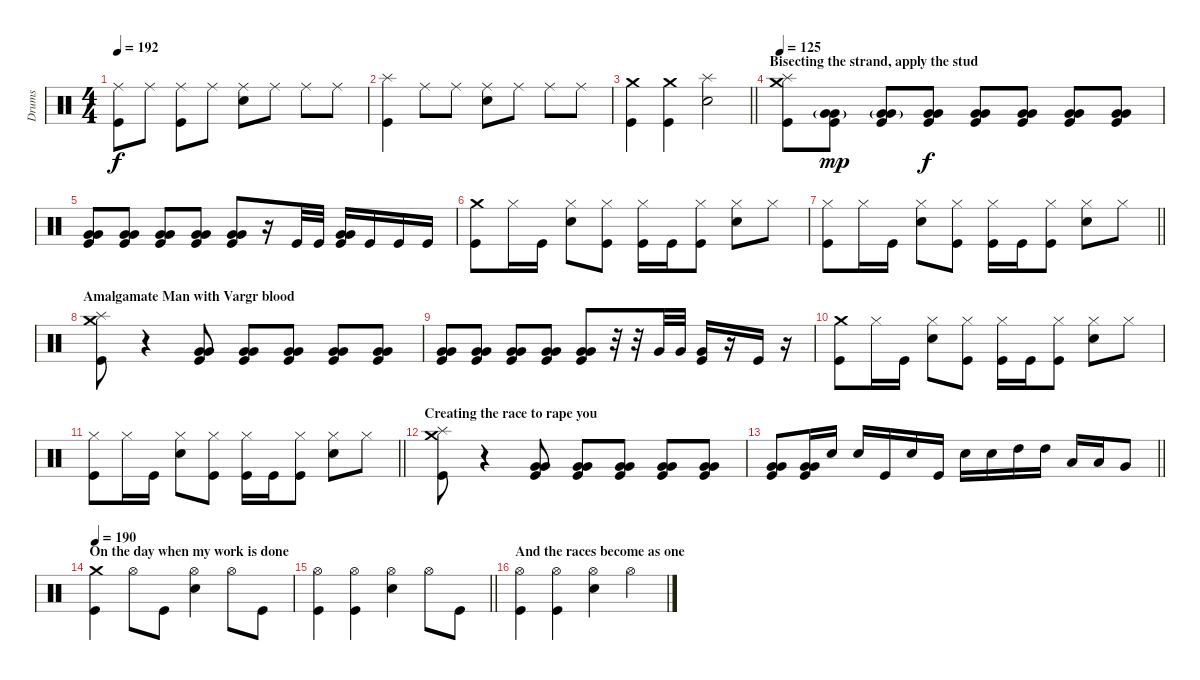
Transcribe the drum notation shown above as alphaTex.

\track ("Drums" "Drums") {instrument percussion}
\staff {score}
\articulation defaults
\ts (4 4)
\tempo 192
\clef neutral
\ks c
("Ride (middle)" "Kick (hit)").8{dy f} "Ride (middle)".8 ("Ride (middle)" "Kick (hit)").8 "Ride (middle)".8 ("Ride (middle)" "Snare (hit) 2").8 "Ride (middle)".8 "Ride (middle)".8 "Ride (middle)".8 |
("Splash (hit)" "Kick (hit)").4 "Ride (middle)".8 "Ride (middle)".8 ("Ride (middle)" "Snare (hit) 2").8 "Ride (middle)".8 "Ride (middle)".8 "Ride (middle)".8 |
\barLineRight lightlight
("Crash medium (hit)" "Kick (hit)").4 ("Crash medium (hit)" "Kick (hit)").4 ("Splash (hit)" "Snare (hit) 2").2 |
\section ("" "Bisecting the strand, apply the stud ")
\tempo 125
("Splash (hit)" "Crash medium (hit)" "Kick (hit)").8 ("Very Low Tom (hit)"{g} "Very Low Tom (hit)"{g} "Kick (hit)").8{dy mp} ("Very Low Tom (hit)"{g} "Very Low Tom (hit)"{g} "Kick (hit)").8 ("Very Low Tom (hit)" "Very Low Tom (hit)" "Kick (hit)").8{dy f} ("Very Low Tom (hit)" "Very Low Tom (hit)" "Kick (hit)").8 ("Very Low Tom (hit)" "Very Low Tom (hit)" "Kick (hit)").8 ("Very Low Tom (hit)" "Very Low Tom (hit)" "Kick (hit)").8 ("Very Low Tom (hit)" "Very Low Tom (hit)" "Kick (hit)").8 |
("Very Low Tom (hit)" "Very Low Tom (hit)" "Kick (hit)").8 ("Very Low Tom (hit)" "Very Low Tom (hit)" "Kick (hit)").8 ("Very Low Tom (hit)" "Very Low Tom (hit)" "Kick (hit)").8 ("Very Low Tom (hit)" "Very Low Tom (hit)" "Kick (hit)").8 ("Very Low Tom (hit)" "Very Low Tom (hit)" "Kick (hit)").8 r.16 "Kick (hit)".32 "Kick (hit)".32 ("Very Low Tom (hit)" "Very Low Tom (hit)" "Kick (hit)").16 "Kick (hit)".16 "Kick (hit)".16 "Kick (hit)".16 |
("Crash medium (hit)" "Kick (hit)").8 "Hi-Hat (closed)".16 "Kick (hit)".16 ("Hi-Hat (closed)" "Snare (hit) 2").8 ("Hi-Hat (closed)" "Kick (hit)").8 ("Hi-Hat (closed)" "Kick (hit)").16 "Kick (hit)".16 ("Hi-Hat (closed)" "Kick (hit)").8 ("Hi-Hat (closed)" "Snare (hit) 2").8 "Hi-Hat (closed)".8 |
\barLineRight lightlight
("Hi-Hat (closed)" "Kick (hit)").8 "Hi-Hat (closed)".16 "Kick (hit)".16 ("Hi-Hat (closed)" "Snare (hit) 2").8 ("Hi-Hat (closed)" "Kick (hit)").8 ("Hi-Hat (closed)" "Kick (hit)").16 "Kick (hit)".16 ("Hi-Hat (closed)" "Kick (hit)").8 ("Hi-Hat (closed)" "Snare (hit) 2").8 "Hi-Hat (closed)".8 |
\section ("" "Amalgamate Man with Vargr blood ")
("Splash (hit)" "Crash medium (hit)" "Kick (hit)").8 r.4 ("Very Low Tom (hit)" "Very Low Tom (hit)" "Kick (hit)").8 ("Very Low Tom (hit)" "Very Low Tom (hit)" "Kick (hit)").8 ("Very Low Tom (hit)" "Very Low Tom (hit)" "Kick (hit)").8 ("Very Low Tom (hit)" "Very Low Tom (hit)" "Kick (hit)").8 ("Very Low Tom (hit)" "Very Low Tom (hit)" "Kick (hit)").8 |
("Very Low Tom (hit)" "Very Low Tom (hit)" "Kick (hit)").8 ("Very Low Tom (hit)" "Very Low Tom (hit)" "Kick (hit)").8 ("Very Low Tom (hit)" "Very Low Tom (hit)" "Kick (hit)").8 ("Very Low Tom (hit)" "Very Low Tom (hit)" "Kick (hit)").8 ("Very Low Tom (hit)" "Very Low Tom (hit)" "Kick (hit)").8 r.32 r.32 "Very Low Tom (hit)".32 "Very Low Tom (hit)".32 ("Very Low Tom (hit)" "Kick (hit)").16 r.16 "Kick (hit)".16 r.16 |
("Crash medium (hit)" "Kick (hit)").8 "Hi-Hat (closed)".16 "Kick (hit)".16 ("Hi-Hat (closed)" "Snare (hit) 2").8 ("Hi-Hat (closed)" "Kick (hit)").8 ("Hi-Hat (closed)" "Kick (hit)").16 "Kick (hit)".16 ("Hi-Hat (closed)" "Kick (hit)").8 ("Hi-Hat (closed)" "Snare (hit) 2").8 "Hi-Hat (closed)".8 |
\barLineRight lightlight
("Hi-Hat (closed)" "Kick (hit)").8 "Hi-Hat (closed)".16 "Kick (hit)".16 ("Hi-Hat (closed)" "Snare (hit) 2").8 ("Hi-Hat (closed)" "Kick (hit)").8 ("Hi-Hat (closed)" "Kick (hit)").16 "Kick (hit)".16 ("Hi-Hat (closed)" "Kick (hit)").8 ("Hi-Hat (closed)" "Snare (hit) 2").8 "Hi-Hat (closed)".8 |
\section ("" "Creating the race to rape you ")
("Splash (hit)" "Crash medium (hit)" "Kick (hit)").8 r.4 ("Very Low Tom (hit)" "Very Low Tom (hit)" "Kick (hit)").8 ("Very Low Tom (hit)" "Very Low Tom (hit)" "Kick (hit)").8 ("Very Low Tom (hit)" "Very Low Tom (hit)" "Kick (hit)").8 ("Very Low Tom (hit)" "Very Low Tom (hit)" "Kick (hit)").8 ("Very Low Tom (hit)" "Very Low Tom (hit)" "Kick (hit)").8 |
\barLineRight lightlight
("Very Low Tom (hit)" "Very Low Tom (hit)" "Kick (hit)").8 ("Very Low Tom (hit)" "Very Low Tom (hit)" "Kick (hit)").16 "Snare (hit) 2".16 "Snare (hit) 2".16 "Kick (hit)".16 "Snare (hit) 2".16 "Kick (hit)".16 "Snare (hit) 2".16 "Snare (hit) 2".16 "High Tom (hit)".16 "High Tom (hit)".16 "Low Tom (hit)".16 "Low Tom (hit)".16 "Very Low Tom (hit)".8 |
\section ("" "On the day when my work is done ")
\tempo 190
("Crash medium (hit)" "Kick (hit)").4 "Hi-Hat (open)".8 "Kick (hit)".8 ("Hi-Hat (open)" "Snare (hit) 2").4 "Hi-Hat (open)".8 "Kick (hit)".8 |
\barLineRight lightlight
("Hi-Hat (open)" "Kick (hit)").4 ("Hi-Hat (open)" "Kick (hit)").4 ("Hi-Hat (open)" "Snare (hit) 2").4 "Hi-Hat (open)".8 "Kick (hit)".8 |
\section ("" "And the races become as one ")
("Hi-Hat (open)" "Kick (hit)").4 ("Hi-Hat (open)" "Kick (hit)").4 ("Hi-Hat (open)" "Snare (hit) 2").4 "Hi-Hat (open)".4
